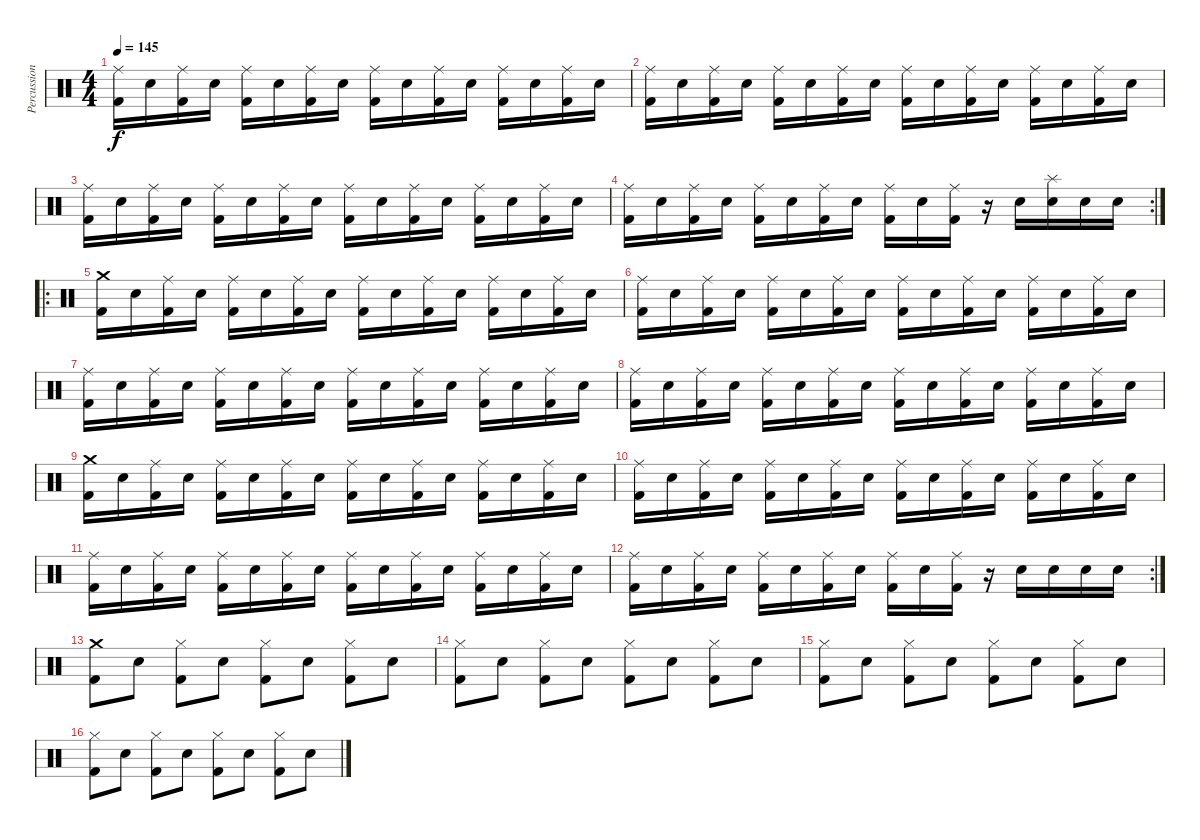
\track ("Percussions" "Percussion") {instrument percussion}
\staff {score}
\articulation defaults
\ts (4 4)
\tempo 145
\clef neutral
\ks c
("Ride (middle)" "Kick (hit) 2").16{dy f} "Snare (hit) 2".16 ("Ride (middle)" "Kick (hit) 2").16 "Snare (hit) 2".16 ("Ride (middle)" "Kick (hit) 2").16 "Snare (hit) 2".16 ("Ride (middle)" "Kick (hit) 2").16 "Snare (hit) 2".16 ("Ride (middle)" "Kick (hit) 2").16 "Snare (hit) 2".16 ("Ride (middle)" "Kick (hit) 2").16 "Snare (hit) 2".16 ("Ride (middle)" "Kick (hit) 2").16 "Snare (hit) 2".16 ("Ride (middle)" "Kick (hit) 2").16 "Snare (hit) 2".16 |
("Ride (middle)" "Kick (hit) 2").16 "Snare (hit) 2".16 ("Ride (middle)" "Kick (hit) 2").16 "Snare (hit) 2".16 ("Ride (middle)" "Kick (hit) 2").16 "Snare (hit) 2".16 ("Ride (middle)" "Kick (hit) 2").16 "Snare (hit) 2".16 ("Ride (middle)" "Kick (hit) 2").16 "Snare (hit) 2".16 ("Ride (middle)" "Kick (hit) 2").16 "Snare (hit) 2".16 ("Ride (middle)" "Kick (hit) 2").16 "Snare (hit) 2".16 ("Ride (middle)" "Kick (hit) 2").16 "Snare (hit) 2".16 |
("Ride (middle)" "Kick (hit) 2").16 "Snare (hit) 2".16 ("Ride (middle)" "Kick (hit) 2").16 "Snare (hit) 2".16 ("Ride (middle)" "Kick (hit) 2").16 "Snare (hit) 2".16 ("Ride (middle)" "Kick (hit) 2").16 "Snare (hit) 2".16 ("Ride (middle)" "Kick (hit) 2").16 "Snare (hit) 2".16 ("Ride (middle)" "Kick (hit) 2").16 "Snare (hit) 2".16 ("Ride (middle)" "Kick (hit) 2").16 "Snare (hit) 2".16 ("Ride (middle)" "Kick (hit) 2").16 "Snare (hit) 2".16 |
\rc 2
("Ride (middle)" "Kick (hit) 2").16 "Snare (hit) 2".16 ("Ride (middle)" "Kick (hit) 2").16 "Snare (hit) 2".16 ("Ride (middle)" "Kick (hit) 2").16 "Snare (hit) 2".16 ("Ride (middle)" "Kick (hit) 2").16 "Snare (hit) 2".16 ("Ride (middle)" "Kick (hit) 2").16 "Snare (hit) 2".16 ("Ride (middle)" "Kick (hit) 2").16 r.16 "Snare (hit) 2".16 ("Splash (hit)" "Snare (hit) 2").16 "Snare (hit) 2".16 "Snare (hit) 2".16 |
\ro
("Crash medium (hit)" "Kick (hit) 2").16 "Snare (hit) 2".16 ("Ride (middle)" "Kick (hit) 2").16 "Snare (hit) 2".16 ("Ride (middle)" "Kick (hit) 2").16 "Snare (hit) 2".16 ("Ride (middle)" "Kick (hit) 2").16 "Snare (hit) 2".16 ("Ride (middle)" "Kick (hit) 2").16 "Snare (hit) 2".16 ("Ride (middle)" "Kick (hit) 2").16 "Snare (hit) 2".16 ("Ride (middle)" "Kick (hit) 2").16 "Snare (hit) 2".16 ("Ride (middle)" "Kick (hit) 2").16 "Snare (hit) 2".16 |
("Ride (middle)" "Kick (hit) 2").16 "Snare (hit) 2".16 ("Ride (middle)" "Kick (hit) 2").16 "Snare (hit) 2".16 ("Ride (middle)" "Kick (hit) 2").16 "Snare (hit) 2".16 ("Ride (middle)" "Kick (hit) 2").16 "Snare (hit) 2".16 ("Ride (middle)" "Kick (hit) 2").16 "Snare (hit) 2".16 ("Ride (middle)" "Kick (hit) 2").16 "Snare (hit) 2".16 ("Ride (middle)" "Kick (hit) 2").16 "Snare (hit) 2".16 ("Ride (middle)" "Kick (hit) 2").16 "Snare (hit) 2".16 |
("Ride (middle)" "Kick (hit) 2").16 "Snare (hit) 2".16 ("Ride (middle)" "Kick (hit) 2").16 "Snare (hit) 2".16 ("Ride (middle)" "Kick (hit) 2").16 "Snare (hit) 2".16 ("Ride (middle)" "Kick (hit) 2").16 "Snare (hit) 2".16 ("Ride (middle)" "Kick (hit) 2").16 "Snare (hit) 2".16 ("Ride (middle)" "Kick (hit) 2").16 "Snare (hit) 2".16 ("Ride (middle)" "Kick (hit) 2").16 "Snare (hit) 2".16 ("Ride (middle)" "Kick (hit) 2").16 "Snare (hit) 2".16 |
("Ride (middle)" "Kick (hit) 2").16 "Snare (hit) 2".16 ("Ride (middle)" "Kick (hit) 2").16 "Snare (hit) 2".16 ("Ride (middle)" "Kick (hit) 2").16 "Snare (hit) 2".16 ("Ride (middle)" "Kick (hit) 2").16 "Snare (hit) 2".16 ("Ride (middle)" "Kick (hit) 2").16 "Snare (hit) 2".16 ("Ride (middle)" "Kick (hit) 2").16 "Snare (hit) 2".16 ("Ride (middle)" "Kick (hit) 2").16 "Snare (hit) 2".16 ("Ride (middle)" "Kick (hit) 2").16 "Snare (hit) 2".16 |
("Crash medium (hit)" "Kick (hit) 2").16 "Snare (hit) 2".16 ("Ride (middle)" "Kick (hit) 2").16 "Snare (hit) 2".16 ("Ride (middle)" "Kick (hit) 2").16 "Snare (hit) 2".16 ("Ride (middle)" "Kick (hit) 2").16 "Snare (hit) 2".16 ("Ride (middle)" "Kick (hit) 2").16 "Snare (hit) 2".16 ("Ride (middle)" "Kick (hit) 2").16 "Snare (hit) 2".16 ("Ride (middle)" "Kick (hit) 2").16 "Snare (hit) 2".16 ("Ride (middle)" "Kick (hit) 2").16 "Snare (hit) 2".16 |
("Ride (middle)" "Kick (hit) 2").16 "Snare (hit) 2".16 ("Ride (middle)" "Kick (hit) 2").16 "Snare (hit) 2".16 ("Ride (middle)" "Kick (hit) 2").16 "Snare (hit) 2".16 ("Ride (middle)" "Kick (hit) 2").16 "Snare (hit) 2".16 ("Ride (middle)" "Kick (hit) 2").16 "Snare (hit) 2".16 ("Ride (middle)" "Kick (hit) 2").16 "Snare (hit) 2".16 ("Ride (middle)" "Kick (hit) 2").16 "Snare (hit) 2".16 ("Ride (middle)" "Kick (hit) 2").16 "Snare (hit) 2".16 |
("Ride (middle)" "Kick (hit) 2").16 "Snare (hit) 2".16 ("Ride (middle)" "Kick (hit) 2").16 "Snare (hit) 2".16 ("Ride (middle)" "Kick (hit) 2").16 "Snare (hit) 2".16 ("Ride (middle)" "Kick (hit) 2").16 "Snare (hit) 2".16 ("Ride (middle)" "Kick (hit) 2").16 "Snare (hit) 2".16 ("Ride (middle)" "Kick (hit) 2").16 "Snare (hit) 2".16 ("Ride (middle)" "Kick (hit) 2").16 "Snare (hit) 2".16 ("Ride (middle)" "Kick (hit) 2").16 "Snare (hit) 2".16 |
\rc 2
("Ride (middle)" "Kick (hit) 2").16 "Snare (hit) 2".16 ("Ride (middle)" "Kick (hit) 2").16 "Snare (hit) 2".16 ("Ride (middle)" "Kick (hit) 2").16 "Snare (hit) 2".16 ("Ride (middle)" "Kick (hit) 2").16 "Snare (hit) 2".16 ("Ride (middle)" "Kick (hit) 2").16 "Snare (hit) 2".16 ("Ride (middle)" "Kick (hit) 2").16 r.16 "Snare (hit) 2".16 "Snare (hit) 2".16 "Snare (hit) 2".16 "Snare (hit) 2".16 |
("Crash medium (hit)" "Kick (hit) 2").8 "Snare (hit) 2".8 ("Hi-Hat (closed)" "Kick (hit) 2").8 "Snare (hit) 2".8 ("Hi-Hat (closed)" "Kick (hit) 2").8 "Snare (hit) 2".8 ("Hi-Hat (closed)" "Kick (hit) 2").8 "Snare (hit) 2".8 |
("Hi-Hat (closed)" "Kick (hit) 2").8 "Snare (hit) 2".8 ("Hi-Hat (closed)" "Kick (hit) 2").8 "Snare (hit) 2".8 ("Hi-Hat (closed)" "Kick (hit) 2").8 "Snare (hit) 2".8 ("Hi-Hat (closed)" "Kick (hit) 2").8 "Snare (hit) 2".8 |
("Hi-Hat (closed)" "Kick (hit) 2").8 "Snare (hit) 2".8 ("Hi-Hat (closed)" "Kick (hit) 2").8 "Snare (hit) 2".8 ("Hi-Hat (closed)" "Kick (hit) 2").8 "Snare (hit) 2".8 ("Hi-Hat (closed)" "Kick (hit) 2").8 "Snare (hit) 2".8 |
("Hi-Hat (closed)" "Kick (hit) 2").8 "Snare (hit) 2".8 ("Hi-Hat (closed)" "Kick (hit) 2").8 "Snare (hit) 2".8 ("Hi-Hat (closed)" "Kick (hit) 2").8 "Snare (hit) 2".8 ("Hi-Hat (closed)" "Kick (hit) 2").8 "Snare (hit) 2".8
